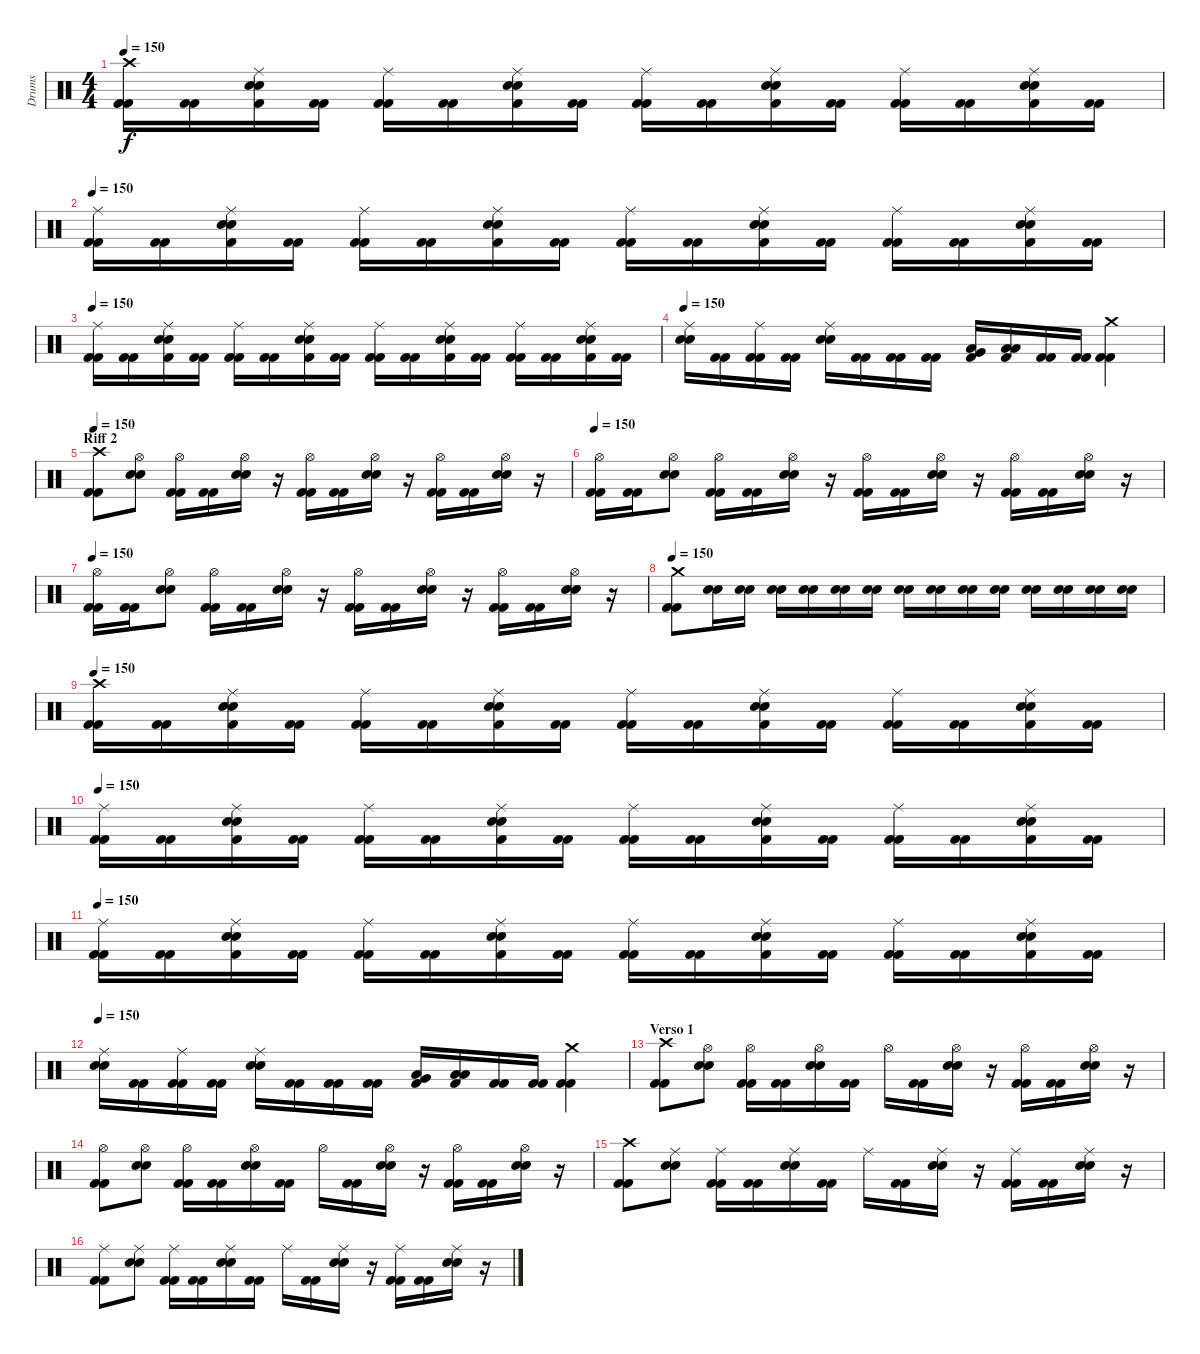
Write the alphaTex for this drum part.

\track ("Drums" "Drums") {instrument percussion}
\staff {score}
\articulation defaults
\ts (4 4)
\tempo 150
\clef neutral
\ks c
("Crash high (hit)" "Kick (hit) 2" "Kick (hit) 2").16{dy f} ("Kick (hit) 2" "Kick (hit) 2").16 ("Ride (middle)" "Snare (hit) 2" "Snare (hit) 2" "Kick (hit) 2").16 ("Kick (hit) 2" "Kick (hit) 2").16 ("Ride (middle)" "Kick (hit) 2" "Kick (hit) 2").16 ("Kick (hit) 2" "Kick (hit) 2").16 ("Ride (middle)" "Snare (hit) 2" "Snare (hit) 2" "Kick (hit) 2").16 ("Kick (hit) 2" "Kick (hit) 2").16 ("Ride (middle)" "Kick (hit) 2" "Kick (hit) 2").16 ("Kick (hit) 2" "Kick (hit) 2").16 ("Ride (middle)" "Snare (hit) 2" "Snare (hit) 2" "Kick (hit) 2").16 ("Kick (hit) 2" "Kick (hit) 2").16 ("Ride (middle)" "Kick (hit) 2" "Kick (hit) 2").16 ("Kick (hit) 2" "Kick (hit) 2").16 ("Ride (middle)" "Snare (hit) 2" "Snare (hit) 2" "Kick (hit) 2").16 ("Kick (hit) 2" "Kick (hit) 2").16 |
\tempo 150
("Ride (middle)" "Kick (hit) 2" "Kick (hit) 2").16 ("Kick (hit) 2" "Kick (hit) 2").16 ("Ride (middle)" "Snare (hit) 2" "Snare (hit) 2" "Kick (hit) 2").16 ("Kick (hit) 2" "Kick (hit) 2").16 ("Ride (middle)" "Kick (hit) 2" "Kick (hit) 2").16 ("Kick (hit) 2" "Kick (hit) 2").16 ("Ride (middle)" "Snare (hit) 2" "Snare (hit) 2" "Kick (hit) 2").16 ("Kick (hit) 2" "Kick (hit) 2").16 ("Ride (middle)" "Kick (hit) 2" "Kick (hit) 2").16 ("Kick (hit) 2" "Kick (hit) 2").16 ("Ride (middle)" "Snare (hit) 2" "Snare (hit) 2" "Kick (hit) 2").16 ("Kick (hit) 2" "Kick (hit) 2").16 ("Ride (middle)" "Kick (hit) 2" "Kick (hit) 2").16 ("Kick (hit) 2" "Kick (hit) 2").16 ("Ride (middle)" "Snare (hit) 2" "Snare (hit) 2" "Kick (hit) 2").16 ("Kick (hit) 2" "Kick (hit) 2").16 |
\tempo 150
("Ride (middle)" "Kick (hit) 2" "Kick (hit) 2").16 ("Kick (hit) 2" "Kick (hit) 2").16 ("Ride (middle)" "Snare (hit) 2" "Snare (hit) 2" "Kick (hit) 2").16 ("Kick (hit) 2" "Kick (hit) 2").16 ("Ride (middle)" "Kick (hit) 2" "Kick (hit) 2").16 ("Kick (hit) 2" "Kick (hit) 2").16 ("Ride (middle)" "Snare (hit) 2" "Snare (hit) 2" "Kick (hit) 2").16 ("Kick (hit) 2" "Kick (hit) 2").16 ("Ride (middle)" "Kick (hit) 2" "Kick (hit) 2").16 ("Kick (hit) 2" "Kick (hit) 2").16 ("Ride (middle)" "Snare (hit) 2" "Snare (hit) 2" "Kick (hit) 2").16 ("Kick (hit) 2" "Kick (hit) 2").16 ("Ride (middle)" "Kick (hit) 2" "Kick (hit) 2").16 ("Kick (hit) 2" "Kick (hit) 2").16 ("Ride (middle)" "Snare (hit) 2" "Snare (hit) 2" "Kick (hit) 2").16 ("Kick (hit) 2" "Kick (hit) 2").16 |
\tempo 150
("Ride (middle)" "Snare (hit) 2" "Snare (hit) 2").16 ("Kick (hit) 2" "Kick (hit) 2").16 ("Ride (middle)" "Kick (hit) 2" "Kick (hit) 2").16 ("Kick (hit) 2" "Kick (hit) 2").16 ("Ride (middle)" "Snare (hit) 2" "Snare (hit) 2").16 ("Kick (hit) 2" "Kick (hit) 2").16 ("Kick (hit) 2" "Kick (hit) 2").16 ("Kick (hit) 2" "Kick (hit) 2").16 ("Very Low Tom (hit)" "Low Tom (hit)" "Kick (hit) 2").16 ("Low Tom (hit)" "Low Tom (hit)" "Kick (hit) 2").16 ("Kick (hit) 2" "Kick (hit) 2").16 ("Kick (hit) 2" "Kick (hit) 2").16 ("Crash medium (hit)" "Kick (hit) 2" "Kick (hit) 2").4 |
\section ("" "Riff 2")
\tempo 150
("Crash high (hit)" "Kick (hit) 2" "Kick (hit) 2").8 ("Hi-Hat (open)" "Snare (hit) 2" "Snare (hit) 2").8 ("Hi-Hat (open)" "Kick (hit) 2" "Kick (hit) 2").16 ("Kick (hit) 2" "Kick (hit) 2").16 ("Hi-Hat (open)" "Snare (hit) 2" "Snare (hit) 2").16 r.16 ("Hi-Hat (open)" "Kick (hit) 2" "Kick (hit) 2").16 ("Kick (hit) 2" "Kick (hit) 2").16 ("Hi-Hat (open)" "Snare (hit) 2" "Snare (hit) 2").16 r.16 ("Hi-Hat (open)" "Kick (hit) 2" "Kick (hit) 2").16 ("Kick (hit) 2" "Kick (hit) 2").16 ("Hi-Hat (open)" "Snare (hit) 2" "Snare (hit) 2").16 r.16 |
\tempo 150
("Hi-Hat (open)" "Kick (hit) 2" "Kick (hit) 2").16 ("Kick (hit) 2" "Kick (hit) 2").16 ("Hi-Hat (open)" "Snare (hit) 2" "Snare (hit) 2").8 ("Hi-Hat (open)" "Kick (hit) 2" "Kick (hit) 2").16 ("Kick (hit) 2" "Kick (hit) 2").16 ("Hi-Hat (open)" "Snare (hit) 2" "Snare (hit) 2").16 r.16 ("Hi-Hat (open)" "Kick (hit) 2" "Kick (hit) 2").16 ("Kick (hit) 2" "Kick (hit) 2").16 ("Hi-Hat (open)" "Snare (hit) 2" "Snare (hit) 2").16 r.16 ("Hi-Hat (open)" "Kick (hit) 2" "Kick (hit) 2").16 ("Kick (hit) 2" "Kick (hit) 2").16 ("Hi-Hat (open)" "Snare (hit) 2" "Snare (hit) 2").16 r.16 |
\tempo 150
("Hi-Hat (open)" "Kick (hit) 2" "Kick (hit) 2").16 ("Kick (hit) 2" "Kick (hit) 2").16 ("Hi-Hat (open)" "Snare (hit) 2" "Snare (hit) 2").8 ("Hi-Hat (open)" "Kick (hit) 2" "Kick (hit) 2").16 ("Kick (hit) 2" "Kick (hit) 2").16 ("Hi-Hat (open)" "Snare (hit) 2" "Snare (hit) 2").16 r.16 ("Hi-Hat (open)" "Kick (hit) 2" "Kick (hit) 2").16 ("Kick (hit) 2" "Kick (hit) 2").16 ("Hi-Hat (open)" "Snare (hit) 2" "Snare (hit) 2").16 r.16 ("Hi-Hat (open)" "Kick (hit) 2" "Kick (hit) 2").16 ("Kick (hit) 2" "Kick (hit) 2").16 ("Hi-Hat (open)" "Snare (hit) 2" "Snare (hit) 2").16 r.16 |
\tempo 150
("Crash medium (hit)" "Kick (hit) 2" "Kick (hit) 2").8 ("Snare (hit) 2" "Snare (hit) 2").16 ("Snare (hit) 2" "Snare (hit) 2").16 ("Snare (hit) 2" "Snare (hit) 2").16 ("Snare (hit) 2" "Snare (hit) 2").16 ("Snare (hit) 2" "Snare (hit) 2").16 ("Snare (hit) 2" "Snare (hit) 2").16 ("Snare (hit) 2" "Snare (hit) 2").16 ("Snare (hit) 2" "Snare (hit) 2").16 ("Snare (hit) 2" "Snare (hit) 2").16 ("Snare (hit) 2" "Snare (hit) 2").16 ("Snare (hit) 2" "Snare (hit) 2").16 ("Snare (hit) 2" "Snare (hit) 2").16 ("Snare (hit) 2" "Snare (hit) 2").16 ("Snare (hit) 2" "Snare (hit) 2").16 |
\tempo 150
("Crash high (hit)" "Kick (hit) 2" "Kick (hit) 2").16 ("Kick (hit) 2" "Kick (hit) 2").16 ("Ride (middle)" "Snare (hit) 2" "Snare (hit) 2" "Kick (hit) 2").16 ("Kick (hit) 2" "Kick (hit) 2").16 ("Ride (middle)" "Kick (hit) 2" "Kick (hit) 2").16 ("Kick (hit) 2" "Kick (hit) 2").16 ("Ride (middle)" "Snare (hit) 2" "Snare (hit) 2" "Kick (hit) 2").16 ("Kick (hit) 2" "Kick (hit) 2").16 ("Ride (middle)" "Kick (hit) 2" "Kick (hit) 2").16 ("Kick (hit) 2" "Kick (hit) 2").16 ("Ride (middle)" "Snare (hit) 2" "Snare (hit) 2" "Kick (hit) 2").16 ("Kick (hit) 2" "Kick (hit) 2").16 ("Ride (middle)" "Kick (hit) 2" "Kick (hit) 2").16 ("Kick (hit) 2" "Kick (hit) 2").16 ("Ride (middle)" "Snare (hit) 2" "Snare (hit) 2" "Kick (hit) 2").16 ("Kick (hit) 2" "Kick (hit) 2").16 |
\tempo 150
("Ride (middle)" "Kick (hit) 2" "Kick (hit) 2").16 ("Kick (hit) 2" "Kick (hit) 2").16 ("Ride (middle)" "Snare (hit) 2" "Snare (hit) 2" "Kick (hit) 2").16 ("Kick (hit) 2" "Kick (hit) 2").16 ("Ride (middle)" "Kick (hit) 2" "Kick (hit) 2").16 ("Kick (hit) 2" "Kick (hit) 2").16 ("Ride (middle)" "Snare (hit) 2" "Snare (hit) 2" "Kick (hit) 2").16 ("Kick (hit) 2" "Kick (hit) 2").16 ("Ride (middle)" "Kick (hit) 2" "Kick (hit) 2").16 ("Kick (hit) 2" "Kick (hit) 2").16 ("Ride (middle)" "Snare (hit) 2" "Snare (hit) 2" "Kick (hit) 2").16 ("Kick (hit) 2" "Kick (hit) 2").16 ("Ride (middle)" "Kick (hit) 2" "Kick (hit) 2").16 ("Kick (hit) 2" "Kick (hit) 2").16 ("Ride (middle)" "Snare (hit) 2" "Snare (hit) 2" "Kick (hit) 2").16 ("Kick (hit) 2" "Kick (hit) 2").16 |
\tempo 150
("Ride (middle)" "Kick (hit) 2" "Kick (hit) 2").16 ("Kick (hit) 2" "Kick (hit) 2").16 ("Ride (middle)" "Snare (hit) 2" "Snare (hit) 2" "Kick (hit) 2").16 ("Kick (hit) 2" "Kick (hit) 2").16 ("Ride (middle)" "Kick (hit) 2" "Kick (hit) 2").16 ("Kick (hit) 2" "Kick (hit) 2").16 ("Ride (middle)" "Snare (hit) 2" "Snare (hit) 2" "Kick (hit) 2").16 ("Kick (hit) 2" "Kick (hit) 2").16 ("Ride (middle)" "Kick (hit) 2" "Kick (hit) 2").16 ("Kick (hit) 2" "Kick (hit) 2").16 ("Ride (middle)" "Snare (hit) 2" "Snare (hit) 2" "Kick (hit) 2").16 ("Kick (hit) 2" "Kick (hit) 2").16 ("Ride (middle)" "Kick (hit) 2" "Kick (hit) 2").16 ("Kick (hit) 2" "Kick (hit) 2").16 ("Ride (middle)" "Snare (hit) 2" "Snare (hit) 2" "Kick (hit) 2").16 ("Kick (hit) 2" "Kick (hit) 2").16 |
\tempo 150
("Ride (middle)" "Snare (hit) 2" "Snare (hit) 2").16 ("Kick (hit) 2" "Kick (hit) 2").16 ("Ride (middle)" "Kick (hit) 2" "Kick (hit) 2").16 ("Kick (hit) 2" "Kick (hit) 2").16 ("Ride (middle)" "Snare (hit) 2" "Snare (hit) 2").16 ("Kick (hit) 2" "Kick (hit) 2").16 ("Kick (hit) 2" "Kick (hit) 2").16 ("Kick (hit) 2" "Kick (hit) 2").16 ("Very Low Tom (hit)" "Low Tom (hit)" "Kick (hit) 2").16 ("Low Tom (hit)" "Low Tom (hit)" "Kick (hit) 2").16 ("Kick (hit) 2" "Kick (hit) 2").16 ("Kick (hit) 2" "Kick (hit) 2").16 ("Crash medium (hit)" "Kick (hit) 2" "Kick (hit) 2").4 |
\section ("" "Verso 1")
("Crash high (hit)" "Kick (hit) 2" "Kick (hit) 2").8 ("Hi-Hat (open)" "Snare (hit) 2" "Snare (hit) 2").8 ("Hi-Hat (open)" "Kick (hit) 2" "Kick (hit) 2").16 ("Kick (hit) 2" "Kick (hit) 2").16 ("Hi-Hat (open)" "Snare (hit) 2" "Snare (hit) 2").16 ("Kick (hit) 2" "Kick (hit) 2").16 "Hi-Hat (open)".16 ("Kick (hit) 2" "Kick (hit) 2").16 ("Hi-Hat (open)" "Snare (hit) 2" "Snare (hit) 2").16 r.16 ("Hi-Hat (open)" "Kick (hit) 2" "Kick (hit) 2").16 ("Kick (hit) 2" "Kick (hit) 2").16 ("Hi-Hat (open)" "Snare (hit) 2" "Snare (hit) 2").16 r.16 |
("Hi-Hat (open)" "Kick (hit) 2" "Kick (hit) 2").8 ("Hi-Hat (open)" "Snare (hit) 2" "Snare (hit) 2").8 ("Hi-Hat (open)" "Kick (hit) 2" "Kick (hit) 2").16 ("Kick (hit) 2" "Kick (hit) 2").16 ("Hi-Hat (open)" "Snare (hit) 2" "Snare (hit) 2").16 ("Kick (hit) 2" "Kick (hit) 2").16 "Hi-Hat (open)".16 ("Kick (hit) 2" "Kick (hit) 2").16 ("Hi-Hat (open)" "Snare (hit) 2" "Snare (hit) 2").16 r.16 ("Hi-Hat (open)" "Kick (hit) 2" "Kick (hit) 2").16 ("Kick (hit) 2" "Kick (hit) 2").16 ("Hi-Hat (open)" "Snare (hit) 2" "Snare (hit) 2").16 r.16 |
("Crash high (hit)" "Kick (hit) 2" "Kick (hit) 2").8 ("Ride (middle)" "Snare (hit) 2" "Snare (hit) 2").8 ("Ride (middle)" "Kick (hit) 2" "Kick (hit) 2").16 ("Kick (hit) 2" "Kick (hit) 2").16 ("Ride (middle)" "Snare (hit) 2" "Snare (hit) 2").16 ("Kick (hit) 2" "Kick (hit) 2").16 "Ride (middle)".16 ("Kick (hit) 2" "Kick (hit) 2").16 ("Ride (middle)" "Snare (hit) 2" "Snare (hit) 2").16 r.16 ("Ride (middle)" "Kick (hit) 2" "Kick (hit) 2").16 ("Kick (hit) 2" "Kick (hit) 2").16 ("Ride (middle)" "Snare (hit) 2" "Snare (hit) 2").16 r.16 |
("Ride (middle)" "Kick (hit) 2" "Kick (hit) 2").8 ("Ride (middle)" "Snare (hit) 2" "Snare (hit) 2").8 ("Ride (middle)" "Kick (hit) 2" "Kick (hit) 2").16 ("Kick (hit) 2" "Kick (hit) 2").16 ("Ride (middle)" "Snare (hit) 2" "Snare (hit) 2").16 ("Kick (hit) 2" "Kick (hit) 2").16 "Ride (middle)".16 ("Kick (hit) 2" "Kick (hit) 2").16 ("Ride (middle)" "Snare (hit) 2" "Snare (hit) 2").16 r.16 ("Ride (middle)" "Kick (hit) 2" "Kick (hit) 2").16 ("Kick (hit) 2" "Kick (hit) 2").16 ("Ride (middle)" "Snare (hit) 2" "Snare (hit) 2").16 r.16
